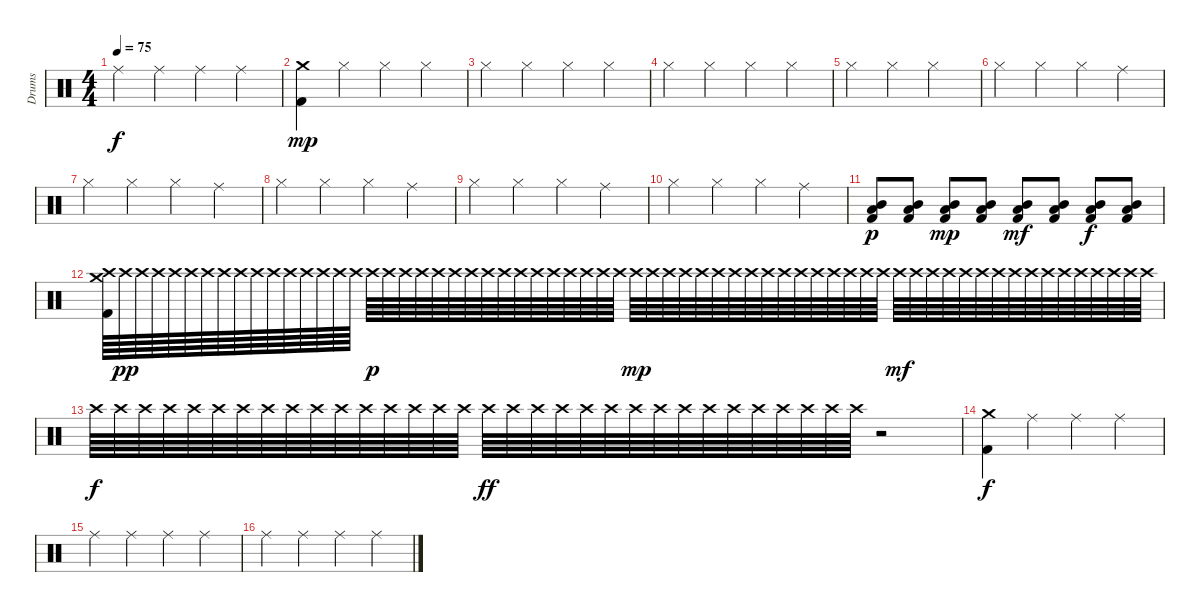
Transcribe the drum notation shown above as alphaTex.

\track ("Drums" "Drums") {instrument percussion}
\staff {score}
\articulation defaults
\ts (4 4)
\tempo 75
\clef neutral
\ks c "Ride (middle)".4{dy f} "Ride (middle)".4 "Ride (middle)".4 "Ride (middle)".4
|
("Kick (hit) 2" "Crash medium (hit)").4{dy mp} "Hi-Hat (closed)".4 "Hi-Hat (closed)".4 "Hi-Hat (closed)".4 |
"Hi-Hat (closed)".4 "Hi-Hat (closed)".4 "Hi-Hat (closed)".4 "Hi-Hat (closed)".4 |
"Hi-Hat (closed)".4 "Hi-Hat (closed)".4 "Hi-Hat (closed)".4 "Hi-Hat (closed)".4 |
"Hi-Hat (closed)".4 "Hi-Hat (closed)".4 "Hi-Hat (closed)".2 |
"Hi-Hat (closed)".4 "Hi-Hat (closed)".4 "Hi-Hat (closed)".4 "Ride (middle)".4 |
"Hi-Hat (closed)".4 "Hi-Hat (closed)".4 "Hi-Hat (closed)".4 "Ride (middle)".4 |
"Hi-Hat (closed)".4 "Hi-Hat (closed)".4 "Hi-Hat (closed)".4 "Ride (middle)".4 |
"Hi-Hat (closed)".4 "Hi-Hat (closed)".4 "Hi-Hat (closed)".4 "Ride (middle)".4 |
"Hi-Hat (closed)".4 "Hi-Hat (closed)".4 "Hi-Hat (closed)".4 "Ride (middle)".4 |
("Mid Tom (hit)" "Kick (hit) 2" "Low Tom (hit)").8{dy p} ("Mid Tom (hit)" "Kick (hit) 2" "Low Tom (hit)").8 ("Mid Tom (hit)" "Kick (hit) 2" "Low Tom (hit)").8{dy mp} ("Mid Tom (hit)" "Kick (hit) 2" "Low Tom (hit)").8 ("Mid Tom (hit)" "Kick (hit) 2" "Low Tom (hit)").8{dy mf} ("Mid Tom (hit)" "Kick (hit) 2" "Low Tom (hit)").8 ("Mid Tom (hit)" "Kick (hit) 2" "Low Tom (hit)").8{dy f} ("Mid Tom (hit)" "Kick (hit) 2" "Low Tom (hit)").8 |
("Kick (hit) 2" "Crash medium (hit)" "Crash high (hit)").64 "Crash high (hit)".64{dy pp} "Crash high (hit)".64 "Crash high (hit)".64 "Crash high (hit)".64 "Crash high (hit)".64 "Crash high (hit)".64 "Crash high (hit)".64 "Crash high (hit)".64 "Crash high (hit)".64 "Crash high (hit)".64 "Crash high (hit)".64 "Crash high (hit)".64 "Crash high (hit)".64 "Crash high (hit)".64 "Crash high (hit)".64 "Crash high (hit)".64{dy p} "Crash high (hit)".64 "Crash high (hit)".64 "Crash high (hit)".64 "Crash high (hit)".64 "Crash high (hit)".64 "Crash high (hit)".64 "Crash high (hit)".64 "Crash high (hit)".64 "Crash high (hit)".64 "Crash high (hit)".64 "Crash high (hit)".64 "Crash high (hit)".64 "Crash high (hit)".64 "Crash high (hit)".64 "Crash high (hit)".64 "Crash high (hit)".64{dy mp} "Crash high (hit)".64 "Crash high (hit)".64 "Crash high (hit)".64 "Crash high (hit)".64 "Crash high (hit)".64 "Crash high (hit)".64 "Crash high (hit)".64 "Crash high (hit)".64 "Crash high (hit)".64 "Crash high (hit)".64 "Crash high (hit)".64 "Crash high (hit)".64 "Crash high (hit)".64 "Crash high (hit)".64 "Crash high (hit)".64 "Crash high (hit)".64{dy mf} "Crash high (hit)".64 "Crash high (hit)".64 "Crash high (hit)".64 "Crash high (hit)".64 "Crash high (hit)".64 "Crash high (hit)".64 "Crash high (hit)".64 "Crash high (hit)".64 "Crash high (hit)".64 "Crash high (hit)".64 "Crash high (hit)".64 "Crash high (hit)".64 "Crash high (hit)".64 "Crash high (hit)".64 "Crash high (hit)".64 |
"Crash high (hit)".64{dy f} "Crash high (hit)".64 "Crash high (hit)".64 "Crash high (hit)".64 "Crash high (hit)".64 "Crash high (hit)".64 "Crash high (hit)".64 "Crash high (hit)".64 "Crash high (hit)".64 "Crash high (hit)".64 "Crash high (hit)".64 "Crash high (hit)".64 "Crash high (hit)".64 "Crash high (hit)".64 "Crash high (hit)".64 "Crash high (hit)".64 "Crash high (hit)".64{dy ff} "Crash high (hit)".64 "Crash high (hit)".64 "Crash high (hit)".64 "Crash high (hit)".64 "Crash high (hit)".64 "Crash high (hit)".64 "Crash high (hit)".64 "Crash high (hit)".64 "Crash high (hit)".64 "Crash high (hit)".64 "Crash high (hit)".64 "Crash high (hit)".64 "Crash high (hit)".64 "Crash high (hit)".64 "Crash high (hit)".64 r.2 |
("Kick (hit) 2" "Crash medium (hit)").4{dy f} "Ride (middle)".4 "Ride (middle)".4 "Ride (middle)".4 |
"Ride (middle)".4 "Ride (middle)".4 "Ride (middle)".4 "Ride (middle)".4 |
"Ride (middle)".4 "Ride (middle)".4 "Ride (middle)".4 "Ride (middle)".4
